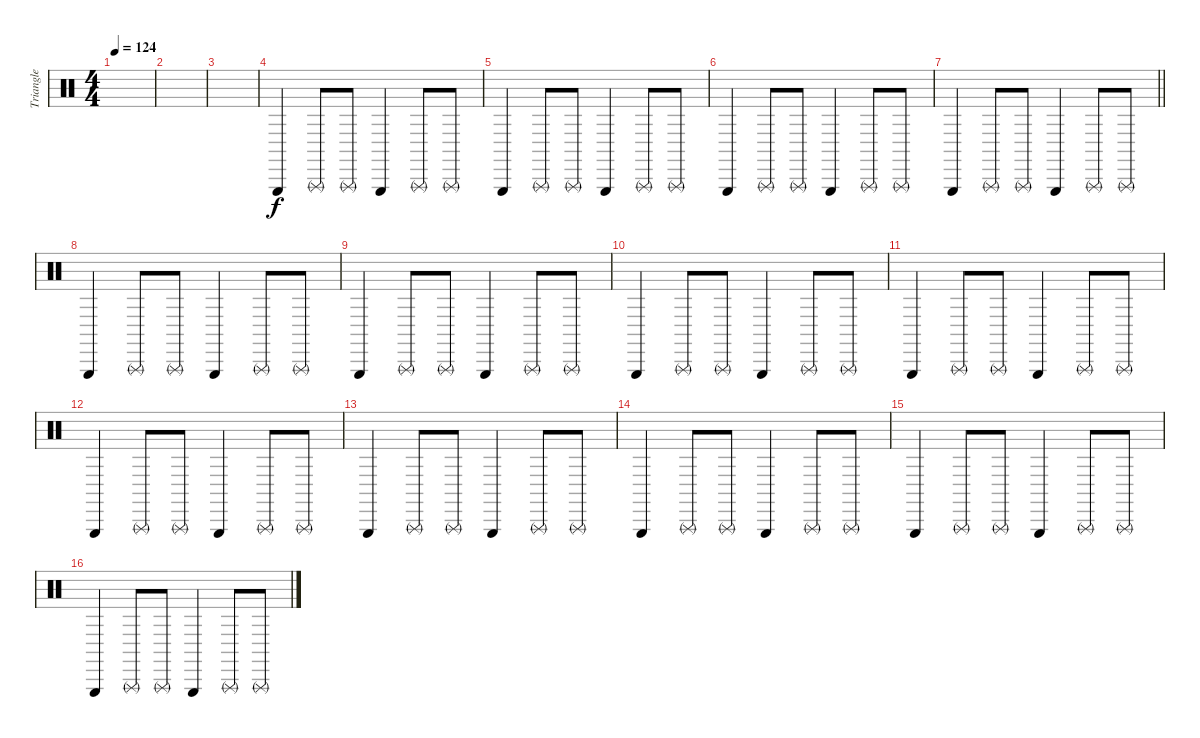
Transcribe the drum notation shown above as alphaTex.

\track ("Triangle" "Triangle") {instrument percussion}
\staff {score}
\articulation defaults
\ts (4 4)
\tempo 124
\clef neutral
\ks c
|
|
|
"Triangle (hit)".4 "Triangle (rnute)".8 "Triangle (rnute)".8 "Triangle (hit)".4 "Triangle (rnute)".8 "Triangle (rnute)".8 |
"Triangle (hit)".4 "Triangle (rnute)".8 "Triangle (rnute)".8 "Triangle (hit)".4 "Triangle (rnute)".8 "Triangle (rnute)".8 |
"Triangle (hit)".4 "Triangle (rnute)".8 "Triangle (rnute)".8 "Triangle (hit)".4 "Triangle (rnute)".8 "Triangle (rnute)".8 |
\barLineRight lightlight "Triangle (hit)".4 "Triangle (rnute)".8 "Triangle (rnute)".8 "Triangle (hit)".4 "Triangle (rnute)".8 "Triangle (rnute)".8
|
"Triangle (hit)".4 "Triangle (rnute)".8 "Triangle (rnute)".8 "Triangle (hit)".4 "Triangle (rnute)".8 "Triangle (rnute)".8 |
"Triangle (hit)".4 "Triangle (rnute)".8 "Triangle (rnute)".8 "Triangle (hit)".4 "Triangle (rnute)".8 "Triangle (rnute)".8 |
"Triangle (hit)".4 "Triangle (rnute)".8 "Triangle (rnute)".8 "Triangle (hit)".4 "Triangle (rnute)".8 "Triangle (rnute)".8 |
"Triangle (hit)".4 "Triangle (rnute)".8 "Triangle (rnute)".8 "Triangle (hit)".4 "Triangle (rnute)".8 "Triangle (rnute)".8 |
"Triangle (hit)".4 "Triangle (rnute)".8 "Triangle (rnute)".8 "Triangle (hit)".4 "Triangle (rnute)".8 "Triangle (rnute)".8 |
"Triangle (hit)".4 "Triangle (rnute)".8 "Triangle (rnute)".8 "Triangle (hit)".4 "Triangle (rnute)".8 "Triangle (rnute)".8 |
"Triangle (hit)".4 "Triangle (rnute)".8 "Triangle (rnute)".8 "Triangle (hit)".4 "Triangle (rnute)".8 "Triangle (rnute)".8 |
"Triangle (hit)".4 "Triangle (rnute)".8 "Triangle (rnute)".8 "Triangle (hit)".4 "Triangle (rnute)".8 "Triangle (rnute)".8 |
"Triangle (hit)".4 "Triangle (rnute)".8 "Triangle (rnute)".8 "Triangle (hit)".4 "Triangle (rnute)".8 "Triangle (rnute)".8
